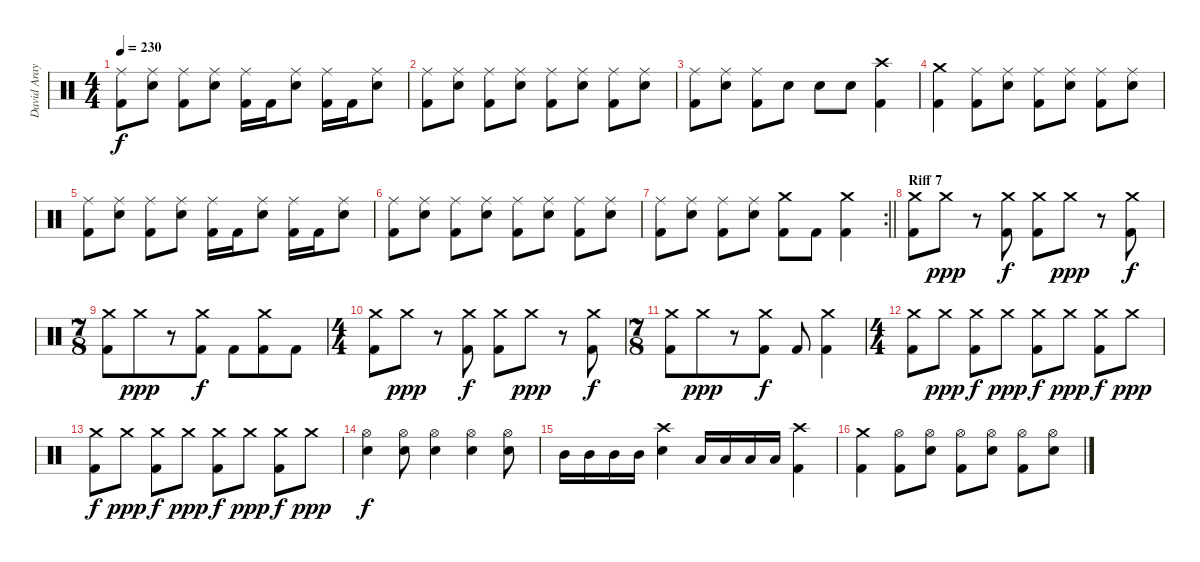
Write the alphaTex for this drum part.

\track ("David Araya" "David Aray") {instrument percussion}
\staff {score}
\articulation defaults
\ts (4 4)
\tempo 230
\clef neutral
\ks c
("Ride (middle)" "Kick (hit) 2").8{dy f} ("Ride (middle)" "Electric Snare (hit)").8 ("Ride (middle)" "Kick (hit) 2").8 ("Ride (middle)" "Electric Snare (hit)").8 ("Ride (middle)" "Kick (hit) 2").16 "Kick (hit) 2".16 ("Ride (middle)" "Electric Snare (hit)").8 ("Ride (middle)" "Kick (hit) 2").16 "Kick (hit) 2".16 ("Ride (middle)" "Electric Snare (hit)").8 |
("Ride (middle)" "Kick (hit) 2").8 ("Ride (middle)" "Electric Snare (hit)").8 ("Ride (middle)" "Kick (hit) 2").8 ("Ride (middle)" "Electric Snare (hit)").8 ("Ride (middle)" "Kick (hit) 2").8 ("Ride (middle)" "Electric Snare (hit)").8 ("Ride (middle)" "Kick (hit) 2").8 ("Ride (middle)" "Electric Snare (hit)").8 |
("Ride (middle)" "Kick (hit) 2").8 ("Ride (middle)" "Electric Snare (hit)").8 ("Ride (middle)" "Kick (hit) 2").8 "Electric Snare (hit)".8 "Electric Snare (hit)".8 "Electric Snare (hit)".8 ("Crash high (hit)" "Kick (hit) 2").4 |
("Crash medium (hit)" "Kick (hit) 2").4 ("Ride (middle)" "Kick (hit) 2").8 ("Ride (middle)" "Electric Snare (hit)").8 ("Ride (middle)" "Kick (hit) 2").8 ("Ride (middle)" "Electric Snare (hit)").8 ("Ride (middle)" "Kick (hit) 2").8 ("Ride (middle)" "Electric Snare (hit)").8 |
("Ride (middle)" "Kick (hit) 2").8 ("Ride (middle)" "Electric Snare (hit)").8 ("Ride (middle)" "Kick (hit) 2").8 ("Ride (middle)" "Electric Snare (hit)").8 ("Ride (middle)" "Kick (hit) 2").16 "Kick (hit) 2".16 ("Ride (middle)" "Electric Snare (hit)").8 ("Ride (middle)" "Kick (hit) 2").16 "Kick (hit) 2".16 ("Ride (middle)" "Electric Snare (hit)").8 |
("Ride (middle)" "Kick (hit) 2").8 ("Ride (middle)" "Electric Snare (hit)").8 ("Ride (middle)" "Kick (hit) 2").8 ("Ride (middle)" "Electric Snare (hit)").8 ("Ride (middle)" "Kick (hit) 2").8 ("Ride (middle)" "Electric Snare (hit)").8 ("Ride (middle)" "Kick (hit) 2").8 ("Ride (middle)" "Electric Snare (hit)").8 |
\rc 2
\barLineRight lightlight
("Ride (middle)" "Kick (hit) 2").8 ("Ride (middle)" "Electric Snare (hit)").8 ("Ride (middle)" "Kick (hit) 2").8 ("Ride (middle)" "Electric Snare (hit)").8 ("Crash medium (hit)" "Kick (hit) 2").8 "Kick (hit) 2".8 ("Crash medium (hit)" "Kick (hit) 2").4 |
\section ("" "Riff 7")
("Crash medium (hit)" "Kick (hit) 2").8 "Crash medium (hit)".8{dy ppp} r.8 ("Crash medium (hit)" "Kick (hit) 2").8{dy f} ("Crash medium (hit)" "Kick (hit) 2").8 "Crash medium (hit)".8{dy ppp} r.8 ("Crash medium (hit)" "Kick (hit) 2").8{dy f} |
\ts (7 8)
("Crash medium (hit)" "Kick (hit) 2").8 "Crash medium (hit)".8{dy ppp} r.8 ("Crash medium (hit)" "Kick (hit) 2").8{dy f} "Kick (hit) 2".8 ("Crash medium (hit)" "Kick (hit) 2").8 "Kick (hit) 2".8 |
\ts (4 4)
("Crash medium (hit)" "Kick (hit) 2").8 "Crash medium (hit)".8{dy ppp} r.8 ("Crash medium (hit)" "Kick (hit) 2").8{dy f} ("Crash medium (hit)" "Kick (hit) 2").8 "Crash medium (hit)".8{dy ppp} r.8 ("Crash medium (hit)" "Kick (hit) 2").8{dy f} |
\ts (7 8)
("Crash medium (hit)" "Kick (hit) 2").8 "Crash medium (hit)".8{dy ppp} r.8 ("Crash medium (hit)" "Kick (hit) 2").8{dy f} "Kick (hit) 2".8 ("Crash medium (hit)" "Kick (hit) 2").4 |
\ts (4 4)
("Crash medium (hit)" "Kick (hit) 2").8 "Crash medium (hit)".8{dy ppp} ("Crash medium (hit)" "Kick (hit) 2").8{dy f} "Crash medium (hit)".8{dy ppp} ("Crash medium (hit)" "Kick (hit) 2").8{dy f} "Crash medium (hit)".8{dy ppp} ("Crash medium (hit)" "Kick (hit) 2").8{dy f} "Crash medium (hit)".8{dy ppp} |
("Crash medium (hit)" "Kick (hit) 2").8{dy f} "Crash medium (hit)".8{dy ppp} ("Crash medium (hit)" "Kick (hit) 2").8{dy f} "Crash medium (hit)".8{dy ppp} ("Crash medium (hit)" "Kick (hit) 2").8{dy f} "Crash medium (hit)".8{dy ppp} ("Crash medium (hit)" "Kick (hit) 2").8{dy f} "Crash medium (hit)".8{dy ppp} |
("Hi-Hat (open)" "Electric Snare (hit)").4{dy f} ("Hi-Hat (open)" "Electric Snare (hit)").8 ("Hi-Hat (open)" "Electric Snare (hit)").4 ("Hi-Hat (open)" "Electric Snare (hit)").4 ("Hi-Hat (open)" "Electric Snare (hit)").8 |
"Mid Tom (hit)".16 "Mid Tom (hit)".16 "Mid Tom (hit)".16 "Mid Tom (hit)".16 ("Crash high (hit)" "Electric Snare (hit)").4 "Low Tom (hit)".16 "Low Tom (hit)".16 "Low Tom (hit)".16 "Low Tom (hit)".16 ("Crash high (hit)" "Kick (hit) 2").4 |
("Crash medium (hit)" "Kick (hit) 2").4 ("Hi-Hat (open)" "Kick (hit) 2").8 ("Hi-Hat (open)" "Electric Snare (hit)").8 ("Hi-Hat (open)" "Kick (hit) 2").8 ("Hi-Hat (open)" "Electric Snare (hit)").8 ("Hi-Hat (open)" "Kick (hit) 2").8 ("Hi-Hat (open)" "Electric Snare (hit)").8
